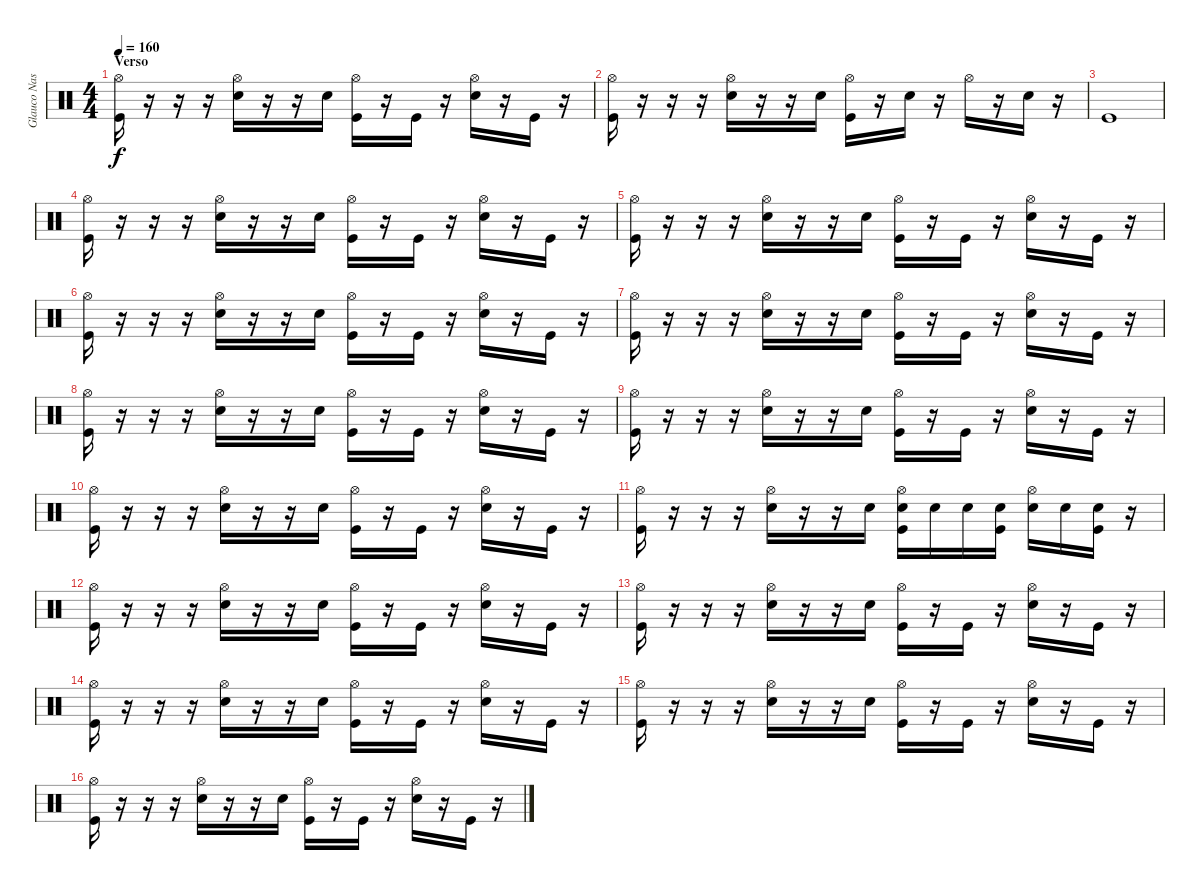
\track ("Glauco Nastácia" "Glauco Nas") {instrument percussion}
\staff {score}
\articulation defaults
\ts (4 4)
\section ("" "Verso")
\tempo 160
\clef neutral
\ks c
("Hi-Hat (open)" "Kick (hit)").16{dy f} r.16 r.16 r.16 ("Hi-Hat (open)" "Electric Snare (hit)").16 r.16 r.16 "Electric Snare (hit)".16 ("Hi-Hat (open)" "Kick (hit)").16 r.16 "Kick (hit)".16 r.16 ("Hi-Hat (open)" "Electric Snare (hit)").16 r.16 "Kick (hit)".16 r.16 |
("Hi-Hat (open)" "Kick (hit)").16 r.16 r.16 r.16 ("Hi-Hat (open)" "Electric Snare (hit)").16 r.16 r.16 "Electric Snare (hit)".16 ("Hi-Hat (open)" "Kick (hit)").16 r.16 "Electric Snare (hit)".16 r.16 "Hi-Hat (open)".16 r.16 "Electric Snare (hit)".16 r.16 |
"Kick (hit)".1 |
("Hi-Hat (open)" "Kick (hit)").16 r.16 r.16 r.16 ("Hi-Hat (open)" "Electric Snare (hit)").16 r.16 r.16 "Electric Snare (hit)".16 ("Hi-Hat (open)" "Kick (hit)").16 r.16 "Kick (hit)".16 r.16 ("Hi-Hat (open)" "Electric Snare (hit)").16 r.16 "Kick (hit)".16 r.16 |
("Hi-Hat (open)" "Kick (hit)").16 r.16 r.16 r.16 ("Hi-Hat (open)" "Electric Snare (hit)").16 r.16 r.16 "Electric Snare (hit)".16 ("Hi-Hat (open)" "Kick (hit)").16 r.16 "Kick (hit)".16 r.16 ("Hi-Hat (open)" "Electric Snare (hit)").16 r.16 "Kick (hit)".16 r.16 |
("Hi-Hat (open)" "Kick (hit)").16 r.16 r.16 r.16 ("Hi-Hat (open)" "Electric Snare (hit)").16 r.16 r.16 "Electric Snare (hit)".16 ("Hi-Hat (open)" "Kick (hit)").16 r.16 "Kick (hit)".16 r.16 ("Hi-Hat (open)" "Electric Snare (hit)").16 r.16 "Kick (hit)".16 r.16 |
("Hi-Hat (open)" "Kick (hit)").16 r.16 r.16 r.16 ("Hi-Hat (open)" "Electric Snare (hit)").16 r.16 r.16 "Electric Snare (hit)".16 ("Hi-Hat (open)" "Kick (hit)").16 r.16 "Kick (hit)".16 r.16 ("Hi-Hat (open)" "Electric Snare (hit)").16 r.16 "Kick (hit)".16 r.16 |
("Hi-Hat (open)" "Kick (hit)").16 r.16 r.16 r.16 ("Hi-Hat (open)" "Electric Snare (hit)").16 r.16 r.16 "Electric Snare (hit)".16 ("Hi-Hat (open)" "Kick (hit)").16 r.16 "Kick (hit)".16 r.16 ("Hi-Hat (open)" "Electric Snare (hit)").16 r.16 "Kick (hit)".16 r.16 |
("Hi-Hat (open)" "Kick (hit)").16 r.16 r.16 r.16 ("Hi-Hat (open)" "Electric Snare (hit)").16 r.16 r.16 "Electric Snare (hit)".16 ("Hi-Hat (open)" "Kick (hit)").16 r.16 "Kick (hit)".16 r.16 ("Hi-Hat (open)" "Electric Snare (hit)").16 r.16 "Kick (hit)".16 r.16 |
("Hi-Hat (open)" "Kick (hit)").16 r.16 r.16 r.16 ("Hi-Hat (open)" "Electric Snare (hit)").16 r.16 r.16 "Electric Snare (hit)".16 ("Hi-Hat (open)" "Kick (hit)").16 r.16 "Kick (hit)".16 r.16 ("Hi-Hat (open)" "Electric Snare (hit)").16 r.16 "Kick (hit)".16 r.16 |
("Hi-Hat (open)" "Kick (hit)").16 r.16 r.16 r.16 ("Hi-Hat (open)" "Electric Snare (hit)").16 r.16 r.16 "Electric Snare (hit)".16 ("Hi-Hat (open)" "Electric Snare (hit)" "Kick (hit)").16 "Electric Snare (hit)".16 "Electric Snare (hit)".16 ("Electric Snare (hit)" "Kick (hit)").16 ("Hi-Hat (open)" "Electric Snare (hit)").16 "Electric Snare (hit)".16 ("Electric Snare (hit)" "Kick (hit)").16 r.16 |
("Hi-Hat (open)" "Kick (hit)").16 r.16 r.16 r.16 ("Hi-Hat (open)" "Electric Snare (hit)").16 r.16 r.16 "Electric Snare (hit)".16 ("Hi-Hat (open)" "Kick (hit)").16 r.16 "Kick (hit)".16 r.16 ("Hi-Hat (open)" "Electric Snare (hit)").16 r.16 "Kick (hit)".16 r.16 |
("Hi-Hat (open)" "Kick (hit)").16 r.16 r.16 r.16 ("Hi-Hat (open)" "Electric Snare (hit)").16 r.16 r.16 "Electric Snare (hit)".16 ("Hi-Hat (open)" "Kick (hit)").16 r.16 "Kick (hit)".16 r.16 ("Hi-Hat (open)" "Electric Snare (hit)").16 r.16 "Kick (hit)".16 r.16 |
("Hi-Hat (open)" "Kick (hit)").16 r.16 r.16 r.16 ("Hi-Hat (open)" "Electric Snare (hit)").16 r.16 r.16 "Electric Snare (hit)".16 ("Hi-Hat (open)" "Kick (hit)").16 r.16 "Kick (hit)".16 r.16 ("Hi-Hat (open)" "Electric Snare (hit)").16 r.16 "Kick (hit)".16 r.16 |
("Hi-Hat (open)" "Kick (hit)").16 r.16 r.16 r.16 ("Hi-Hat (open)" "Electric Snare (hit)").16 r.16 r.16 "Electric Snare (hit)".16 ("Hi-Hat (open)" "Kick (hit)").16 r.16 "Kick (hit)".16 r.16 ("Hi-Hat (open)" "Electric Snare (hit)").16 r.16 "Kick (hit)".16 r.16 |
("Hi-Hat (open)" "Kick (hit)").16 r.16 r.16 r.16 ("Hi-Hat (open)" "Electric Snare (hit)").16 r.16 r.16 "Electric Snare (hit)".16 ("Hi-Hat (open)" "Kick (hit)").16 r.16 "Kick (hit)".16 r.16 ("Hi-Hat (open)" "Electric Snare (hit)").16 r.16 "Kick (hit)".16 r.16
